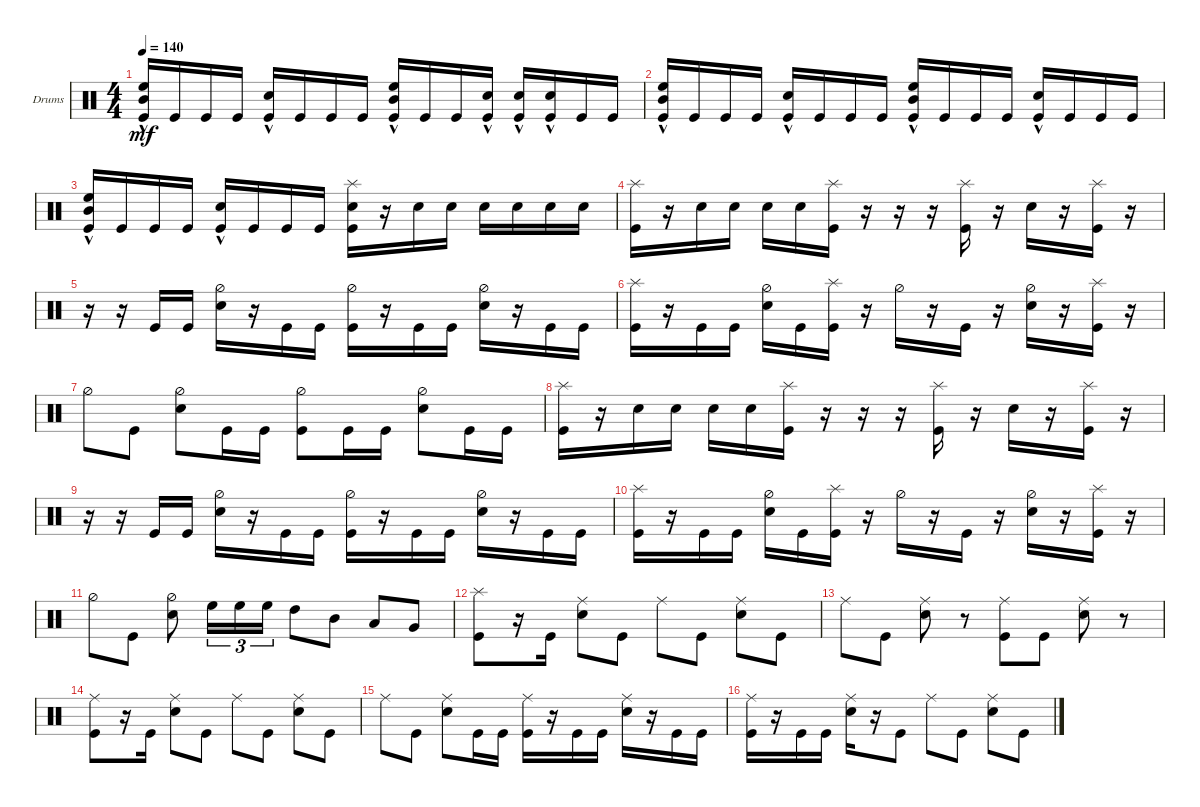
\bracketExtendMode groupsimilarinstruments
\firstSystemTrackNameOrientation horizontal
\otherSystemsTrackNameOrientation horizontal
\track ("Drumkit" "Drums") {instrument percussion}
\staff {score}
\articulation defaults
\ts (4 4)
\tempo 140
\clef neutral
\ks c
("Kick (hit)" "Mid Tom (hit)"{hac} "High Floor Tom (hit)"{hac}).16{dy mf} "Kick (hit)".16 "Kick (hit)".16 "Kick (hit)".16 ("Snare (hit) 2"{hac} "Kick (hit)").16 "Kick (hit)".16 "Kick (hit)".16 "Kick (hit)".16 ("Mid Tom (hit)"{hac} "High Floor Tom (hit)"{hac} "Kick (hit)").16 "Kick (hit)".16 "Kick (hit)".16 ("Kick (hit)" "Snare (hit) 2"{hac}).16 ("Snare (hit) 2"{hac} "Kick (hit)").16 ("Kick (hit)" "Snare (hit) 2"{hac}).16 "Kick (hit)".16 "Kick (hit)".16 |
("Kick (hit)" "Mid Tom (hit)"{hac} "High Floor Tom (hit)"{hac}).16 "Kick (hit)".16 "Kick (hit)".16 "Kick (hit)".16 ("Snare (hit) 2"{hac} "Kick (hit)").16 "Kick (hit)".16 "Kick (hit)".16 "Kick (hit)".16 ("Mid Tom (hit)"{hac} "High Floor Tom (hit)"{hac} "Kick (hit)").16 "Kick (hit)".16 "Kick (hit)".16 "Kick (hit)".16 ("Snare (hit) 2"{hac} "Kick (hit)").16 "Kick (hit)".16 "Kick (hit)".16 "Kick (hit)".16 |
("Kick (hit)" "Mid Tom (hit)"{hac} "High Floor Tom (hit)"{hac}).16 "Kick (hit)".16 "Kick (hit)".16 "Kick (hit)".16 ("Snare (hit) 2"{hac} "Kick (hit)").16 "Kick (hit)".16 "Kick (hit)".16 "Kick (hit)".16 ("Snare (hit) 2" "Splash (hit)" "Kick (hit)").16 r.16 "Snare (hit) 2".16 "Snare (hit) 2".16 "Snare (hit) 2".16 "Snare (hit) 2".16 "Snare (hit) 2".16 "Snare (hit) 2".16 |
("Kick (hit)" "Splash (hit)").16 r.16 "Snare (hit) 2".16 "Snare (hit) 2".16 "Snare (hit) 2".16 "Snare (hit) 2".16 ("Kick (hit)" "Splash (hit)").16 r.16 r.16 r.16 ("Kick (hit)" "Splash (hit)").16 r.16 "Snare (hit) 2".16 r.16 ("Kick (hit)" "Splash (hit)").16 r.16 |
r.16 r.16 "Kick (hit)".16 "Kick (hit)".16 ("Snare (hit) 2" "Hi-Hat (half)").16 r.16 "Kick (hit)".16 "Kick (hit)".16 ("Kick (hit)" "Hi-Hat (half)").16 r.16 "Kick (hit)".16 "Kick (hit)".16 ("Snare (hit) 2" "Hi-Hat (half)").16 r.16 "Kick (hit)".16 "Kick (hit)".16 |
("Kick (hit)" "Splash (hit)").16 r.16 "Kick (hit)".16 "Kick (hit)".16 ("Snare (hit) 2" "Hi-Hat (half)").16 "Kick (hit)".16 ("Kick (hit)" "Splash (hit)").16 r.16 "Hi-Hat (half)".16 r.16 "Kick (hit)".16 r.16 ("Snare (hit) 2" "Hi-Hat (half)").16 r.16 ("Kick (hit)" "Splash (hit)").16 r.16 |
"Hi-Hat (half)".8 "Kick (hit)".8 ("Snare (hit) 2" "Hi-Hat (half)").8 "Kick (hit)".16 "Kick (hit)".16 ("Kick (hit)" "Hi-Hat (half)").8 "Kick (hit)".16 "Kick (hit)".16 ("Snare (hit) 2" "Hi-Hat (half)").8 "Kick (hit)".16 "Kick (hit)".16 |
("Kick (hit)" "Splash (hit)").16 r.16 "Snare (hit) 2".16 "Snare (hit) 2".16 "Snare (hit) 2".16 "Snare (hit) 2".16 ("Kick (hit)" "Splash (hit)").16 r.16 r.16 r.16 ("Kick (hit)" "Splash (hit)").16 r.16 "Snare (hit) 2".16 r.16 ("Kick (hit)" "Splash (hit)").16 r.16 |
r.16 r.16 "Kick (hit)".16 "Kick (hit)".16 ("Snare (hit) 2" "Hi-Hat (half)").16 r.16 "Kick (hit)".16 "Kick (hit)".16 ("Kick (hit)" "Hi-Hat (half)").16 r.16 "Kick (hit)".16 "Kick (hit)".16 ("Snare (hit) 2" "Hi-Hat (half)").16 r.16 "Kick (hit)".16 "Kick (hit)".16 |
("Kick (hit)" "Splash (hit)").16 r.16 "Kick (hit)".16 "Kick (hit)".16 ("Snare (hit) 2" "Hi-Hat (half)").16 "Kick (hit)".16 ("Kick (hit)" "Splash (hit)").16 r.16 "Hi-Hat (half)".16 r.16 "Kick (hit)".16 r.16 ("Snare (hit) 2" "Hi-Hat (half)").16 r.16 ("Kick (hit)" "Splash (hit)").16 r.16 |
"Hi-Hat (half)".8 "Kick (hit)".8 ("Snare (hit) 2" "Hi-Hat (half)").8 "High Floor Tom (hit)".16{tu (3 2)} "High Floor Tom (hit)".16{tu (3 2)} "High Floor Tom (hit)".16{tu (3 2)} "High Tom (hit)".8 "Mid Tom (hit)".8 "Low Tom (hit)".8 "Very Low Tom (hit)".8 |
("Kick (hit)" "Splash (hit)").8 r.16 "Kick (hit)".16 ("Snare (hit) 2" "Ride (middle)").8 "Kick (hit)".8 "Ride (middle)".8 "Kick (hit)".8 ("Snare (hit) 2" "Ride (middle)").8 "Kick (hit)".8 |
"Ride (middle)".8 "Kick (hit)".8 ("Snare (hit) 2" "Ride (middle)").8 r.8 ("Kick (hit)" "Ride (middle)").8 "Kick (hit)".8 ("Snare (hit) 2" "Ride (middle)").8 r.8 |
("Kick (hit)" "Ride (middle)").8 r.16 "Kick (hit)".16 ("Snare (hit) 2" "Ride (middle)").8 "Kick (hit)".8 "Ride (middle)".8 "Kick (hit)".8 ("Snare (hit) 2" "Ride (middle)").8 "Kick (hit)".8 |
"Ride (middle)".8 "Kick (hit)".8 ("Snare (hit) 2" "Ride (middle)").8 "Kick (hit)".16 "Kick (hit)".16 ("Kick (hit)" "Ride (middle)").16 r.16 "Kick (hit)".16 "Kick (hit)".16 ("Snare (hit) 2" "Ride (middle)").16 r.16 "Kick (hit)".16 "Kick (hit)".16 |
("Kick (hit)" "Ride (middle)").16 r.16 "Kick (hit)".16 "Kick (hit)".16 ("Snare (hit) 2" "Ride (middle)").16 r.16 "Kick (hit)".8 "Ride (middle)".8 "Kick (hit)".8 ("Snare (hit) 2" "Ride (middle)").8 "Kick (hit)".8
